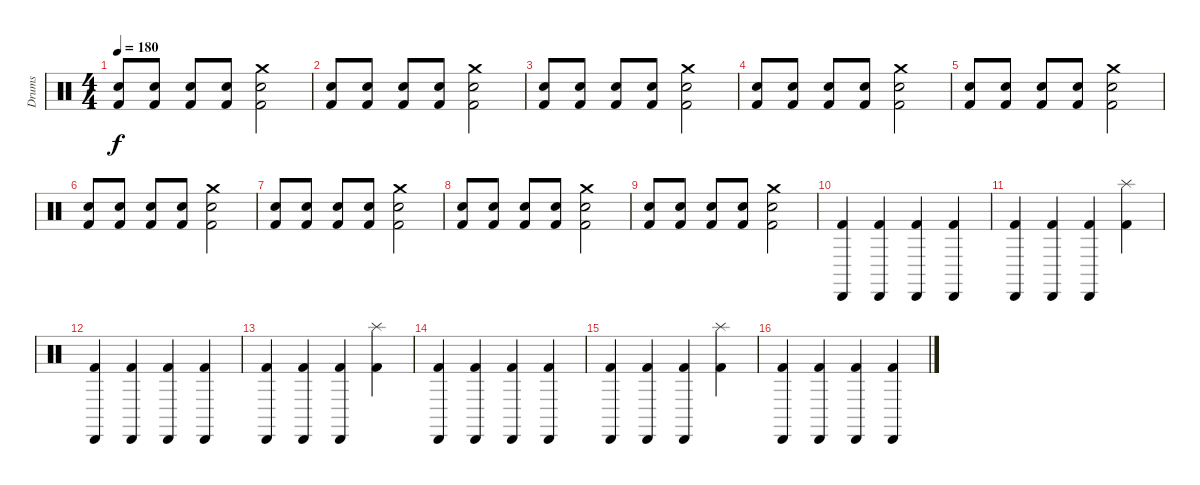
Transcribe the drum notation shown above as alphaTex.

\track ("Drums" "Drums") {instrument percussion}
\staff {score}
\articulation defaults
\ts (4 4)
\tempo 180
\clef neutral
\ks c
("Snare (hit) 2" "Kick (hit) 2").8{dy f} ("Snare (hit) 2" "Kick (hit) 2").8 ("Snare (hit) 2" "Kick (hit) 2").8 ("Snare (hit) 2" "Kick (hit) 2").8 ("Snare (hit) 2" "Crash medium (hit)" "Kick (hit) 2").2 |
("Snare (hit) 2" "Kick (hit) 2").8 ("Snare (hit) 2" "Kick (hit) 2").8 ("Snare (hit) 2" "Kick (hit) 2").8 ("Snare (hit) 2" "Kick (hit) 2").8 ("Snare (hit) 2" "Crash medium (hit)" "Kick (hit) 2").2 |
("Snare (hit) 2" "Kick (hit) 2").8 ("Snare (hit) 2" "Kick (hit) 2").8 ("Snare (hit) 2" "Kick (hit) 2").8 ("Snare (hit) 2" "Kick (hit) 2").8 ("Snare (hit) 2" "Crash medium (hit)" "Kick (hit) 2").2 |
("Snare (hit) 2" "Kick (hit) 2").8 ("Snare (hit) 2" "Kick (hit) 2").8 ("Snare (hit) 2" "Kick (hit) 2").8 ("Snare (hit) 2" "Kick (hit) 2").8 ("Snare (hit) 2" "Crash medium (hit)" "Kick (hit) 2").2 |
("Snare (hit) 2" "Kick (hit) 2").8 ("Snare (hit) 2" "Kick (hit) 2").8 ("Snare (hit) 2" "Kick (hit) 2").8 ("Snare (hit) 2" "Kick (hit) 2").8 ("Snare (hit) 2" "Crash medium (hit)" "Kick (hit) 2").2 |
("Snare (hit) 2" "Kick (hit) 2").8 ("Snare (hit) 2" "Kick (hit) 2").8 ("Snare (hit) 2" "Kick (hit) 2").8 ("Snare (hit) 2" "Kick (hit) 2").8 ("Snare (hit) 2" "Crash medium (hit)" "Kick (hit) 2").2 |
("Snare (hit) 2" "Kick (hit) 2").8 ("Snare (hit) 2" "Kick (hit) 2").8 ("Snare (hit) 2" "Kick (hit) 2").8 ("Snare (hit) 2" "Kick (hit) 2").8 ("Snare (hit) 2" "Crash medium (hit)" "Kick (hit) 2").2 |
("Snare (hit) 2" "Kick (hit) 2").8 ("Snare (hit) 2" "Kick (hit) 2").8 ("Snare (hit) 2" "Kick (hit) 2").8 ("Snare (hit) 2" "Kick (hit) 2").8 ("Snare (hit) 2" "Crash medium (hit)" "Kick (hit) 2").2 |
("Snare (hit) 2" "Kick (hit) 2").8 ("Snare (hit) 2" "Kick (hit) 2").8 ("Snare (hit) 2" "Kick (hit) 2").8 ("Snare (hit) 2" "Kick (hit) 2").8 ("Snare (hit) 2" "Crash medium (hit)" "Kick (hit) 2").2 |
("Cabasa (hit)" "Kick (hit) 2").4 ("Cabasa (hit)" "Kick (hit) 2").4 ("Cabasa (hit)" "Kick (hit) 2").4 ("Cabasa (hit)" "Kick (hit) 2").4 |
("Cabasa (hit)" "Kick (hit) 2").4 ("Cabasa (hit)" "Kick (hit) 2").4 ("Cabasa (hit)" "Kick (hit) 2").4 ("Splash (hit)" "Kick (hit) 2").4 |
("Cabasa (hit)" "Kick (hit) 2").4 ("Cabasa (hit)" "Kick (hit) 2").4 ("Cabasa (hit)" "Kick (hit) 2").4 ("Cabasa (hit)" "Kick (hit) 2").4 |
("Cabasa (hit)" "Kick (hit) 2").4 ("Cabasa (hit)" "Kick (hit) 2").4 ("Cabasa (hit)" "Kick (hit) 2").4 ("Splash (hit)" "Kick (hit) 2").4 |
("Cabasa (hit)" "Kick (hit) 2").4 ("Cabasa (hit)" "Kick (hit) 2").4 ("Cabasa (hit)" "Kick (hit) 2").4 ("Cabasa (hit)" "Kick (hit) 2").4 |
("Cabasa (hit)" "Kick (hit) 2").4 ("Cabasa (hit)" "Kick (hit) 2").4 ("Cabasa (hit)" "Kick (hit) 2").4 ("Splash (hit)" "Kick (hit) 2").4 |
("Cabasa (hit)" "Kick (hit) 2").4 ("Cabasa (hit)" "Kick (hit) 2").4 ("Cabasa (hit)" "Kick (hit) 2").4 ("Cabasa (hit)" "Kick (hit) 2").4
